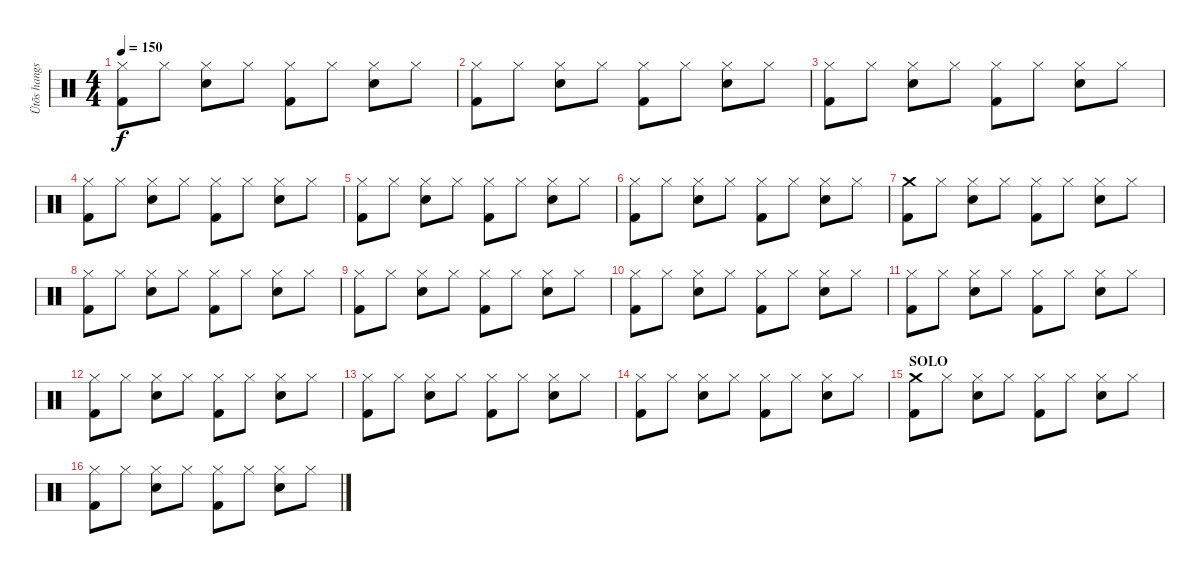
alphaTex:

\track ("Ütõs hangszer" "Ütõs hangs") {instrument percussion}
\staff {score}
\articulation defaults
\ts (4 4)
\tempo 150
\clef neutral
\ks c
("Hi-Hat (closed)" "Kick (hit) 2").8{dy f} "Hi-Hat (closed)".8 ("Hi-Hat (closed)" "Electric Snare (hit)").8 "Hi-Hat (closed)".8 ("Hi-Hat (closed)" "Kick (hit) 2").8 "Hi-Hat (closed)".8 ("Hi-Hat (closed)" "Electric Snare (hit)").8 "Hi-Hat (closed)".8 |
("Hi-Hat (closed)" "Kick (hit) 2").8 "Hi-Hat (closed)".8 ("Hi-Hat (closed)" "Electric Snare (hit)").8 "Hi-Hat (closed)".8 ("Hi-Hat (closed)" "Kick (hit) 2").8 "Hi-Hat (closed)".8 ("Hi-Hat (closed)" "Electric Snare (hit)").8 "Hi-Hat (closed)".8 |
("Hi-Hat (closed)" "Kick (hit) 2").8 "Hi-Hat (closed)".8 ("Hi-Hat (closed)" "Electric Snare (hit)").8 "Hi-Hat (closed)".8 ("Hi-Hat (closed)" "Kick (hit) 2").8 "Hi-Hat (closed)".8 ("Hi-Hat (closed)" "Electric Snare (hit)").8 "Hi-Hat (closed)".8 |
("Hi-Hat (closed)" "Kick (hit) 2").8 "Hi-Hat (closed)".8 ("Hi-Hat (closed)" "Electric Snare (hit)").8 "Hi-Hat (closed)".8 ("Hi-Hat (closed)" "Kick (hit) 2").8 "Hi-Hat (closed)".8 ("Hi-Hat (closed)" "Electric Snare (hit)").8 "Hi-Hat (closed)".8 |
("Hi-Hat (closed)" "Kick (hit) 2").8 "Hi-Hat (closed)".8 ("Hi-Hat (closed)" "Electric Snare (hit)").8 "Hi-Hat (closed)".8 ("Hi-Hat (closed)" "Kick (hit) 2").8 "Hi-Hat (closed)".8 ("Hi-Hat (closed)" "Electric Snare (hit)").8 "Hi-Hat (closed)".8 |
("Hi-Hat (closed)" "Kick (hit) 2").8 "Hi-Hat (closed)".8 ("Hi-Hat (closed)" "Electric Snare (hit)").8 "Hi-Hat (closed)".8 ("Hi-Hat (closed)" "Kick (hit) 2").8 "Hi-Hat (closed)".8 ("Hi-Hat (closed)" "Electric Snare (hit)").8 "Hi-Hat (closed)".8 |
("Crash medium (hit)" "Kick (hit) 2").8 "Hi-Hat (closed)".8 ("Hi-Hat (closed)" "Electric Snare (hit)").8 "Hi-Hat (closed)".8 ("Hi-Hat (closed)" "Kick (hit) 2").8 "Hi-Hat (closed)".8 ("Hi-Hat (closed)" "Electric Snare (hit)").8 "Hi-Hat (closed)".8 |
("Hi-Hat (closed)" "Kick (hit) 2").8 "Hi-Hat (closed)".8 ("Hi-Hat (closed)" "Electric Snare (hit)").8 "Hi-Hat (closed)".8 ("Hi-Hat (closed)" "Kick (hit) 2").8 "Hi-Hat (closed)".8 ("Hi-Hat (closed)" "Electric Snare (hit)").8 "Hi-Hat (closed)".8 |
("Hi-Hat (closed)" "Kick (hit) 2").8 "Hi-Hat (closed)".8 ("Hi-Hat (closed)" "Electric Snare (hit)").8 "Hi-Hat (closed)".8 ("Hi-Hat (closed)" "Kick (hit) 2").8 "Hi-Hat (closed)".8 ("Hi-Hat (closed)" "Electric Snare (hit)").8 "Hi-Hat (closed)".8 |
("Hi-Hat (closed)" "Kick (hit) 2").8 "Hi-Hat (closed)".8 ("Hi-Hat (closed)" "Electric Snare (hit)").8 "Hi-Hat (closed)".8 ("Hi-Hat (closed)" "Kick (hit) 2").8 "Hi-Hat (closed)".8 ("Hi-Hat (closed)" "Electric Snare (hit)").8 "Hi-Hat (closed)".8 |
("Hi-Hat (closed)" "Kick (hit) 2").8 "Hi-Hat (closed)".8 ("Hi-Hat (closed)" "Electric Snare (hit)").8 "Hi-Hat (closed)".8 ("Hi-Hat (closed)" "Kick (hit) 2").8 "Hi-Hat (closed)".8 ("Hi-Hat (closed)" "Electric Snare (hit)").8 "Hi-Hat (closed)".8 |
("Hi-Hat (closed)" "Kick (hit) 2").8 "Hi-Hat (closed)".8 ("Hi-Hat (closed)" "Electric Snare (hit)").8 "Hi-Hat (closed)".8 ("Hi-Hat (closed)" "Kick (hit) 2").8 "Hi-Hat (closed)".8 ("Hi-Hat (closed)" "Electric Snare (hit)").8 "Hi-Hat (closed)".8 |
("Hi-Hat (closed)" "Kick (hit) 2").8 "Hi-Hat (closed)".8 ("Hi-Hat (closed)" "Electric Snare (hit)").8 "Hi-Hat (closed)".8 ("Hi-Hat (closed)" "Kick (hit) 2").8 "Hi-Hat (closed)".8 ("Hi-Hat (closed)" "Electric Snare (hit)").8 "Hi-Hat (closed)".8 |
("Hi-Hat (closed)" "Kick (hit) 2").8 "Hi-Hat (closed)".8 ("Hi-Hat (closed)" "Electric Snare (hit)").8 "Hi-Hat (closed)".8 ("Hi-Hat (closed)" "Kick (hit) 2").8 "Hi-Hat (closed)".8 ("Hi-Hat (closed)" "Electric Snare (hit)").8 "Hi-Hat (closed)".8 |
\section ("" "SOLO")
("Crash medium (hit)" "Kick (hit) 2").8 "Hi-Hat (closed)".8 ("Hi-Hat (closed)" "Electric Snare (hit)").8 "Hi-Hat (closed)".8 ("Hi-Hat (closed)" "Kick (hit) 2").8 "Hi-Hat (closed)".8 ("Hi-Hat (closed)" "Electric Snare (hit)").8 "Hi-Hat (closed)".8 |
("Hi-Hat (closed)" "Kick (hit) 2").8 "Hi-Hat (closed)".8 ("Hi-Hat (closed)" "Electric Snare (hit)").8 "Hi-Hat (closed)".8 ("Hi-Hat (closed)" "Kick (hit) 2").8 "Hi-Hat (closed)".8 ("Hi-Hat (closed)" "Electric Snare (hit)").8 "Hi-Hat (closed)".8
